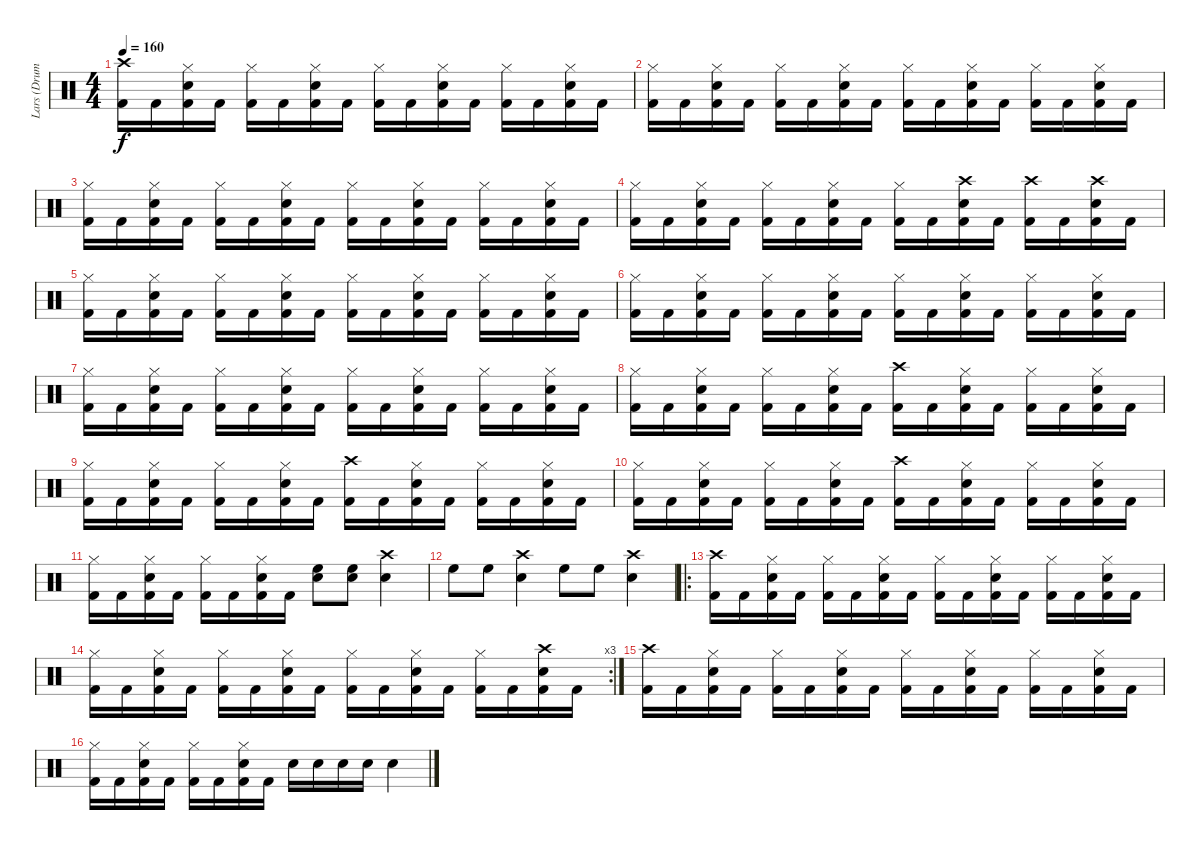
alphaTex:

\track ("Lars (Drums)" "Lars (Drum") {instrument percussion}
\staff {score}
\articulation defaults
\ts (4 4)
\tempo 160
\clef neutral
\ks c
("Crash high (hit)" "Kick (hit) 2").16{dy f} "Kick (hit) 2".16 ("Hi-Hat (closed)" "Kick (hit) 2" "Snare (hit) 2").16 "Kick (hit) 2".16 ("Hi-Hat (closed)" "Kick (hit) 2").16 "Kick (hit) 2".16 ("Hi-Hat (closed)" "Kick (hit) 2" "Snare (hit) 2").16 "Kick (hit) 2".16 ("Hi-Hat (closed)" "Kick (hit) 2").16 "Kick (hit) 2".16 ("Hi-Hat (closed)" "Kick (hit) 2" "Snare (hit) 2").16 "Kick (hit) 2".16 ("Hi-Hat (closed)" "Kick (hit) 2").16 "Kick (hit) 2".16 ("Hi-Hat (closed)" "Kick (hit) 2" "Snare (hit) 2").16 "Kick (hit) 2".16 |
("Hi-Hat (closed)" "Kick (hit) 2").16 "Kick (hit) 2".16 ("Hi-Hat (closed)" "Kick (hit) 2" "Snare (hit) 2").16 "Kick (hit) 2".16 ("Hi-Hat (closed)" "Kick (hit) 2").16 "Kick (hit) 2".16 ("Hi-Hat (closed)" "Kick (hit) 2" "Snare (hit) 2").16 "Kick (hit) 2".16 ("Hi-Hat (closed)" "Kick (hit) 2").16 "Kick (hit) 2".16 ("Hi-Hat (closed)" "Kick (hit) 2" "Snare (hit) 2").16 "Kick (hit) 2".16 ("Hi-Hat (closed)" "Kick (hit) 2").16 "Kick (hit) 2".16 ("Hi-Hat (closed)" "Kick (hit) 2" "Snare (hit) 2").16 "Kick (hit) 2".16 |
("Hi-Hat (closed)" "Kick (hit) 2").16 "Kick (hit) 2".16 ("Hi-Hat (closed)" "Kick (hit) 2" "Snare (hit) 2").16 "Kick (hit) 2".16 ("Hi-Hat (closed)" "Kick (hit) 2").16 "Kick (hit) 2".16 ("Hi-Hat (closed)" "Kick (hit) 2" "Snare (hit) 2").16 "Kick (hit) 2".16 ("Hi-Hat (closed)" "Kick (hit) 2").16 "Kick (hit) 2".16 ("Hi-Hat (closed)" "Kick (hit) 2" "Snare (hit) 2").16 "Kick (hit) 2".16 ("Hi-Hat (closed)" "Kick (hit) 2").16 "Kick (hit) 2".16 ("Hi-Hat (closed)" "Kick (hit) 2" "Snare (hit) 2").16 "Kick (hit) 2".16 |
("Hi-Hat (closed)" "Kick (hit) 2").16 "Kick (hit) 2".16 ("Hi-Hat (closed)" "Kick (hit) 2" "Snare (hit) 2").16 "Kick (hit) 2".16 ("Hi-Hat (closed)" "Kick (hit) 2").16 "Kick (hit) 2".16 ("Hi-Hat (closed)" "Kick (hit) 2" "Snare (hit) 2").16 "Kick (hit) 2".16 ("Hi-Hat (closed)" "Kick (hit) 2").16 "Kick (hit) 2".16 ("Crash high (hit)" "Kick (hit) 2" "Snare (hit) 2").16 "Kick (hit) 2".16 ("Crash high (hit)" "Kick (hit) 2").16 "Kick (hit) 2".16 ("Crash high (hit)" "Kick (hit) 2" "Snare (hit) 2").16 "Kick (hit) 2".16 |
("Hi-Hat (closed)" "Kick (hit) 2").16 "Kick (hit) 2".16 ("Hi-Hat (closed)" "Kick (hit) 2" "Snare (hit) 2").16 "Kick (hit) 2".16 ("Hi-Hat (closed)" "Kick (hit) 2").16 "Kick (hit) 2".16 ("Hi-Hat (closed)" "Kick (hit) 2" "Snare (hit) 2").16 "Kick (hit) 2".16 ("Hi-Hat (closed)" "Kick (hit) 2").16 "Kick (hit) 2".16 ("Hi-Hat (closed)" "Kick (hit) 2" "Snare (hit) 2").16 "Kick (hit) 2".16 ("Hi-Hat (closed)" "Kick (hit) 2").16 "Kick (hit) 2".16 ("Hi-Hat (closed)" "Kick (hit) 2" "Snare (hit) 2").16 "Kick (hit) 2".16 |
("Hi-Hat (closed)" "Kick (hit) 2").16 "Kick (hit) 2".16 ("Hi-Hat (closed)" "Kick (hit) 2" "Snare (hit) 2").16 "Kick (hit) 2".16 ("Hi-Hat (closed)" "Kick (hit) 2").16 "Kick (hit) 2".16 ("Hi-Hat (closed)" "Kick (hit) 2" "Snare (hit) 2").16 "Kick (hit) 2".16 ("Hi-Hat (closed)" "Kick (hit) 2").16 "Kick (hit) 2".16 ("Hi-Hat (closed)" "Kick (hit) 2" "Snare (hit) 2").16 "Kick (hit) 2".16 ("Hi-Hat (closed)" "Kick (hit) 2").16 "Kick (hit) 2".16 ("Hi-Hat (closed)" "Kick (hit) 2" "Snare (hit) 2").16 "Kick (hit) 2".16 |
("Hi-Hat (closed)" "Kick (hit) 2").16 "Kick (hit) 2".16 ("Hi-Hat (closed)" "Kick (hit) 2" "Snare (hit) 2").16 "Kick (hit) 2".16 ("Hi-Hat (closed)" "Kick (hit) 2").16 "Kick (hit) 2".16 ("Hi-Hat (closed)" "Kick (hit) 2" "Snare (hit) 2").16 "Kick (hit) 2".16 ("Hi-Hat (closed)" "Kick (hit) 2").16 "Kick (hit) 2".16 ("Hi-Hat (closed)" "Kick (hit) 2" "Snare (hit) 2").16 "Kick (hit) 2".16 ("Hi-Hat (closed)" "Kick (hit) 2").16 "Kick (hit) 2".16 ("Hi-Hat (closed)" "Kick (hit) 2" "Snare (hit) 2").16 "Kick (hit) 2".16 |
("Hi-Hat (closed)" "Kick (hit) 2").16 "Kick (hit) 2".16 ("Hi-Hat (closed)" "Kick (hit) 2" "Snare (hit) 2").16 "Kick (hit) 2".16 ("Hi-Hat (closed)" "Kick (hit) 2").16 "Kick (hit) 2".16 ("Hi-Hat (closed)" "Kick (hit) 2" "Snare (hit) 2").16 "Kick (hit) 2".16 ("Crash high (hit)" "Kick (hit) 2").16 "Kick (hit) 2".16 ("Hi-Hat (closed)" "Kick (hit) 2" "Snare (hit) 2").16 "Kick (hit) 2".16 ("Hi-Hat (closed)" "Kick (hit) 2").16 "Kick (hit) 2".16 ("Hi-Hat (closed)" "Kick (hit) 2" "Snare (hit) 2").16 "Kick (hit) 2".16 |
("Hi-Hat (closed)" "Kick (hit) 2").16 "Kick (hit) 2".16 ("Hi-Hat (closed)" "Kick (hit) 2" "Snare (hit) 2").16 "Kick (hit) 2".16 ("Hi-Hat (closed)" "Kick (hit) 2").16 "Kick (hit) 2".16 ("Hi-Hat (closed)" "Kick (hit) 2" "Snare (hit) 2").16 "Kick (hit) 2".16 ("Crash high (hit)" "Kick (hit) 2").16 "Kick (hit) 2".16 ("Hi-Hat (closed)" "Kick (hit) 2" "Snare (hit) 2").16 "Kick (hit) 2".16 ("Hi-Hat (closed)" "Kick (hit) 2").16 "Kick (hit) 2".16 ("Hi-Hat (closed)" "Kick (hit) 2" "Snare (hit) 2").16 "Kick (hit) 2".16 |
("Hi-Hat (closed)" "Kick (hit) 2").16 "Kick (hit) 2".16 ("Hi-Hat (closed)" "Kick (hit) 2" "Snare (hit) 2").16 "Kick (hit) 2".16 ("Hi-Hat (closed)" "Kick (hit) 2").16 "Kick (hit) 2".16 ("Hi-Hat (closed)" "Kick (hit) 2" "Snare (hit) 2").16 "Kick (hit) 2".16 ("Crash high (hit)" "Kick (hit) 2").16 "Kick (hit) 2".16 ("Hi-Hat (closed)" "Kick (hit) 2" "Snare (hit) 2").16 "Kick (hit) 2".16 ("Hi-Hat (closed)" "Kick (hit) 2").16 "Kick (hit) 2".16 ("Hi-Hat (closed)" "Kick (hit) 2" "Snare (hit) 2").16 "Kick (hit) 2".16 |
("Hi-Hat (closed)" "Kick (hit) 2").16 "Kick (hit) 2".16 ("Hi-Hat (closed)" "Kick (hit) 2" "Snare (hit) 2").16 "Kick (hit) 2".16 ("Hi-Hat (closed)" "Kick (hit) 2").16 "Kick (hit) 2".16 ("Hi-Hat (closed)" "Kick (hit) 2" "Snare (hit) 2").16 "Kick (hit) 2".16 ("Snare (hit) 2" "High Floor Tom (hit)").8 ("Snare (hit) 2" "High Floor Tom (hit)").8 ("Crash high (hit)" "Snare (hit) 2").4 |
"High Floor Tom (hit)".8 "High Floor Tom (hit)".8 ("Crash high (hit)" "Snare (hit) 2").4 "High Floor Tom (hit)".8 "High Floor Tom (hit)".8 ("Crash high (hit)" "Snare (hit) 2").4 |
\ro
("Crash high (hit)" "Kick (hit) 2").16 "Kick (hit) 2".16 ("Hi-Hat (closed)" "Kick (hit) 2" "Snare (hit) 2").16 "Kick (hit) 2".16 ("Hi-Hat (closed)" "Kick (hit) 2").16 "Kick (hit) 2".16 ("Hi-Hat (closed)" "Kick (hit) 2" "Snare (hit) 2").16 "Kick (hit) 2".16 ("Hi-Hat (closed)" "Kick (hit) 2").16 "Kick (hit) 2".16 ("Hi-Hat (closed)" "Kick (hit) 2" "Snare (hit) 2").16 "Kick (hit) 2".16 ("Hi-Hat (closed)" "Kick (hit) 2").16 "Kick (hit) 2".16 ("Hi-Hat (closed)" "Kick (hit) 2" "Snare (hit) 2").16 "Kick (hit) 2".16 |
\rc 3
("Hi-Hat (closed)" "Kick (hit) 2").16 "Kick (hit) 2".16 ("Hi-Hat (closed)" "Kick (hit) 2" "Snare (hit) 2").16 "Kick (hit) 2".16 ("Hi-Hat (closed)" "Kick (hit) 2").16 "Kick (hit) 2".16 ("Hi-Hat (closed)" "Kick (hit) 2" "Snare (hit) 2").16 "Kick (hit) 2".16 ("Hi-Hat (closed)" "Kick (hit) 2").16 "Kick (hit) 2".16 ("Hi-Hat (closed)" "Kick (hit) 2" "Snare (hit) 2").16 "Kick (hit) 2".16 ("Hi-Hat (closed)" "Kick (hit) 2").16 "Kick (hit) 2".16 ("Crash high (hit)" "Kick (hit) 2" "Snare (hit) 2").16 "Kick (hit) 2".16 |
("Crash high (hit)" "Kick (hit) 2").16 "Kick (hit) 2".16 ("Hi-Hat (closed)" "Kick (hit) 2" "Snare (hit) 2").16 "Kick (hit) 2".16 ("Hi-Hat (closed)" "Kick (hit) 2").16 "Kick (hit) 2".16 ("Hi-Hat (closed)" "Kick (hit) 2" "Snare (hit) 2").16 "Kick (hit) 2".16 ("Hi-Hat (closed)" "Kick (hit) 2").16 "Kick (hit) 2".16 ("Hi-Hat (closed)" "Kick (hit) 2" "Snare (hit) 2").16 "Kick (hit) 2".16 ("Hi-Hat (closed)" "Kick (hit) 2").16 "Kick (hit) 2".16 ("Hi-Hat (closed)" "Kick (hit) 2" "Snare (hit) 2").16 "Kick (hit) 2".16 |
("Hi-Hat (closed)" "Kick (hit) 2").16 "Kick (hit) 2".16 ("Hi-Hat (closed)" "Kick (hit) 2" "Snare (hit) 2").16 "Kick (hit) 2".16 ("Hi-Hat (closed)" "Kick (hit) 2").16 "Kick (hit) 2".16 ("Hi-Hat (closed)" "Kick (hit) 2" "Snare (hit) 2").16 "Kick (hit) 2".16 "Snare (hit) 2".16 "Snare (hit) 2".16 "Snare (hit) 2".16 "Snare (hit) 2".16 "Snare (hit) 2".4
